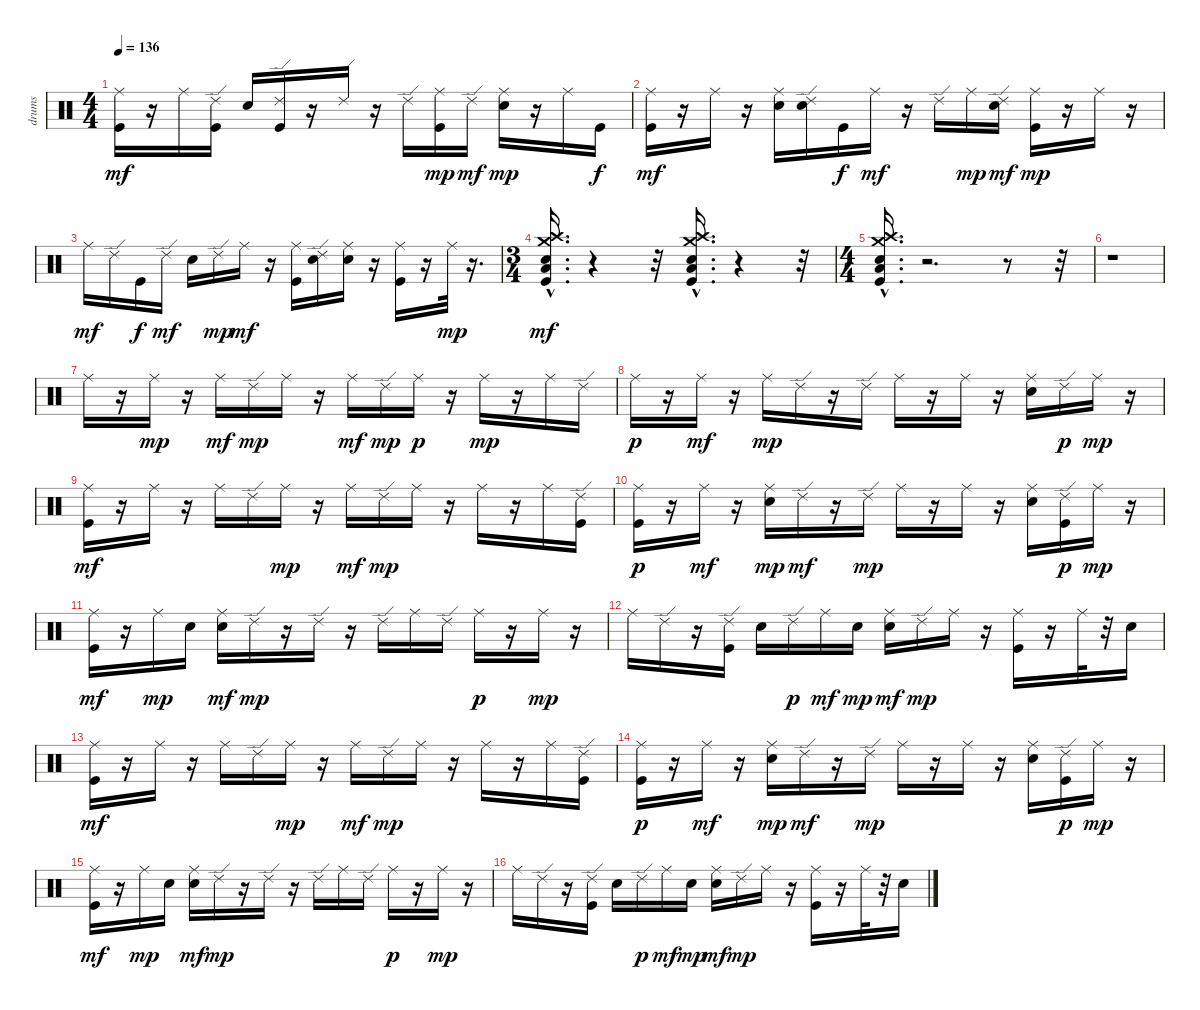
\track ("drums   " "drums   ") {instrument percussion}
\staff {score}
\articulation defaults
\ts (4 4)
\tempo 136
\clef neutral
\ks c
("Kick (hit)" "Ride (middle)").16{dy mf} r.16 "Ride (middle)".16 ("Kick (hit)" "Ride (edge) 2").16 "Electric Snare (hit)".16 ("Kick (hit)" "Ride (edge) 2").16 r.16 "Ride (edge) 2".16 r.16 "Ride (edge) 2".16 ("Kick (hit)" "Ride (middle)").16{dy mp} "Ride (edge) 2".16{dy mf} ("Electric Snare (hit)" "Ride (middle)").16{dy mp} r.16 "Ride (middle)".16 "Kick (hit)".16{dy f} |
("Kick (hit)" "Ride (middle)").16{dy mf} r.16 "Ride (middle)".16 r.16 ("Electric Snare (hit)" "Ride (middle)").16 ("Electric Snare (hit)" "Ride (edge) 2").16 "Kick (hit)".16{dy f} "Ride (middle)".16{dy mf} r.16 "Ride (edge) 2".16 "Ride (middle)".16{dy mp} ("Electric Snare (hit)" "Ride (edge) 2").16{dy mf} ("Kick (hit)" "Ride (middle)").16{dy mp} r.16 "Ride (middle)".16 r.16 |
"Ride (middle)".16{dy mf} "Ride (edge) 2".16 "Kick (hit)".16{dy f} "Ride (edge) 2".16{dy mf} "Electric Snare (hit)".16 "Ride (edge) 2".16{dy mp} "Ride (middle)".16{dy mf} r.16 ("Kick (hit)" "Ride (middle)").16 ("Electric Snare (hit)" "Ride (edge) 2").16 ("Electric Snare (hit)" "Ride (middle)").16 r.16 ("Kick (hit)" "Ride (middle)").16 r.16 "Ride (middle)".32{dy mp} r.16{d} |
\ts (3 4)
("Crash high (hit)"{hac} "Crash medium (hit)"{hac} "Electric Snare (hit)"{hac} "Kick (hit)"{hac} "Low Tom (hit)"{hac}).16{d dy mf} r.4 r.32 ("Crash high (hit)"{hac} "Crash medium (hit)"{hac} "Electric Snare (hit)"{hac} "Kick (hit)"{hac} "Low Tom (hit)"{hac}).16{d} r.4 r.32 |
\ts (4 4)
("Crash high (hit)"{hac} "Crash medium (hit)"{hac} "Electric Snare (hit)"{hac} "Kick (hit)"{hac} "Low Tom (hit)"{hac}).16{d} r.2{d} r.8 r.32 |
r.1 |
"Ride (middle)".16 r.16 "Ride (middle)".16{dy mp} r.16 "Ride (middle)".16{dy mf} "Ride (edge) 2".16{dy mp} "Ride (middle)".16 r.16 "Ride (middle)".16{dy mf} "Ride (edge) 2".16{dy mp} "Ride (middle)".16{dy p} r.16 "Ride (middle)".16{dy mp} r.16 "Ride (middle)".16 "Ride (edge) 2".16 |
"Ride (middle)".16{dy p} r.16 "Ride (middle)".16{dy mf} r.16 "Ride (middle)".16{dy mp} "Ride (edge) 2".16 r.16 "Ride (edge) 2".16 "Ride (middle)".16 r.16 "Ride (middle)".16 r.16 ("Electric Snare (hit)" "Ride (middle)").16 "Ride (edge) 2".16{dy p} "Ride (middle)".16{dy mp} r.16 |
("Kick (hit)" "Ride (middle)").16{dy mf} r.16 "Ride (middle)".16 r.16 "Ride (middle)".16 "Ride (edge) 2".16 "Ride (middle)".16{dy mp} r.16 "Ride (middle)".16{dy mf} "Ride (edge) 2".16{dy mp} "Ride (middle)".16 r.16 "Ride (middle)".16 r.16 "Ride (middle)".16 ("Kick (hit)" "Ride (edge) 2").16 |
("Kick (hit)" "Ride (middle)").16{dy p} r.16 "Ride (middle)".16{dy mf} r.16 ("Electric Snare (hit)" "Ride (middle)").16{dy mp} "Ride (edge) 2".16{dy mf} r.16 "Ride (edge) 2".16{dy mp} "Ride (middle)".16 r.16 "Ride (middle)".16 r.16 ("Electric Snare (hit)" "Ride (middle)").16 ("Kick (hit)" "Ride (edge) 2").16{dy p} "Ride (middle)".16{dy mp} r.16 |
("Kick (hit)" "Ride (middle)").16{dy mf} r.16 "Ride (middle)".16{dy mp} "Electric Snare (hit)".16 ("Electric Snare (hit)" "Ride (middle)").16{dy mf} "Ride (edge) 2".16{dy mp} r.16 "Ride (edge) 2".16 r.16 "Ride (edge) 2".16 "Ride (middle)".16 "Ride (edge) 2".16 "Ride (middle)".16{dy p} r.16 "Ride (middle)".16{dy mp} r.16 |
"Ride (middle)".16 "Ride (edge) 2".16 r.16 ("Kick (hit)" "Ride (edge) 2").16 "Electric Snare (hit)".16 "Ride (edge) 2".16{dy p} "Ride (middle)".16{dy mf} "Electric Snare (hit)".16{dy mp} ("Electric Snare (hit)" "Ride (middle)").16{dy mf} "Ride (edge) 2".16{dy mp} "Ride (middle)".16 r.16 ("Kick (hit)" "Ride (middle)").16 r.16 "Ride (middle)".32 r.32 "Electric Snare (hit)".16 |
("Kick (hit)" "Ride (middle)").16{dy mf} r.16 "Ride (middle)".16 r.16 "Ride (middle)".16 "Ride (edge) 2".16 "Ride (middle)".16{dy mp} r.16 "Ride (middle)".16{dy mf} "Ride (edge) 2".16{dy mp} "Ride (middle)".16 r.16 "Ride (middle)".16 r.16 "Ride (middle)".16 ("Kick (hit)" "Ride (edge) 2").16 |
("Kick (hit)" "Ride (middle)").16{dy p} r.16 "Ride (middle)".16{dy mf} r.16 ("Electric Snare (hit)" "Ride (middle)").16{dy mp} "Ride (edge) 2".16{dy mf} r.16 "Ride (edge) 2".16{dy mp} "Ride (middle)".16 r.16 "Ride (middle)".16 r.16 ("Electric Snare (hit)" "Ride (middle)").16 ("Kick (hit)" "Ride (edge) 2").16{dy p} "Ride (middle)".16{dy mp} r.16 |
("Kick (hit)" "Ride (middle)").16{dy mf} r.16 "Ride (middle)".16{dy mp} "Electric Snare (hit)".16 ("Electric Snare (hit)" "Ride (middle)").16{dy mf} "Ride (edge) 2".16{dy mp} r.16 "Ride (edge) 2".16 r.16 "Ride (edge) 2".16 "Ride (middle)".16 "Ride (edge) 2".16 "Ride (middle)".16{dy p} r.16 "Ride (middle)".16{dy mp} r.16 |
"Ride (middle)".16 "Ride (edge) 2".16 r.16 ("Kick (hit)" "Ride (edge) 2").16 "Electric Snare (hit)".16 "Ride (edge) 2".16{dy p} "Ride (middle)".16{dy mf} "Electric Snare (hit)".16{dy mp} ("Electric Snare (hit)" "Ride (middle)").16{dy mf} "Ride (edge) 2".16{dy mp} "Ride (middle)".16 r.16 ("Kick (hit)" "Ride (middle)").16 r.16 "Ride (middle)".32 r.32 "Electric Snare (hit)".16
